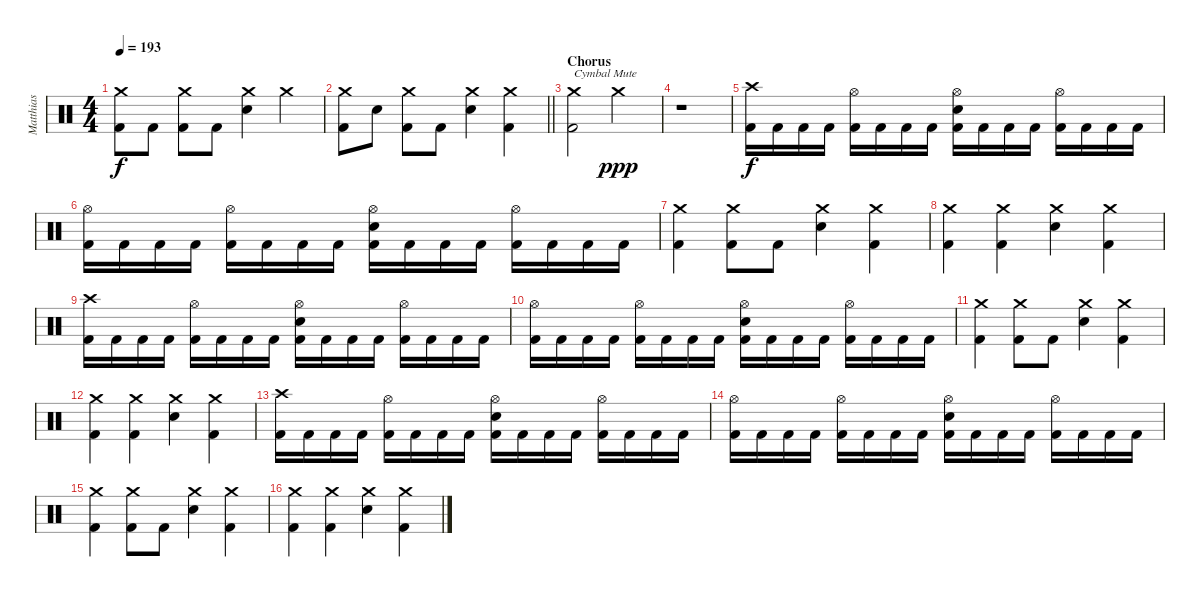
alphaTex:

\track ("Matthias" "Matthias") {instrument percussion}
\staff {score}
\articulation defaults
\ts (4 4)
\tempo 193
\clef neutral
\ks c
("Crash medium (hit)" "Kick (hit) 2").8{dy f} "Kick (hit) 2".8 ("Crash medium (hit)" "Kick (hit) 2").8 "Kick (hit) 2".8 ("Crash medium (hit)" "Electric Snare (hit)").4 "Crash medium (hit)".4 |
\barLineRight lightlight
("Crash medium (hit)" "Kick (hit) 2").8 "Electric Snare (hit)".8 ("Crash medium (hit)" "Kick (hit) 2").8 "Kick (hit) 2".8 ("Crash medium (hit)" "Electric Snare (hit)").4 ("Crash medium (hit)" "Kick (hit) 2").4 |
\section ("" "Chorus")
("Crash medium (hit)" "Kick (hit) 2").2{txt "Cymbal Mute"} "Crash medium (hit)".2{dy ppp} |
r.1 |
("Crash high (hit)" "Kick (hit) 2").16{dy f} "Kick (hit) 2".16 "Kick (hit) 2".16 "Kick (hit) 2".16 ("Hi-Hat (open)" "Kick (hit) 2").16 "Kick (hit) 2".16 "Kick (hit) 2".16 "Kick (hit) 2".16 ("Hi-Hat (open)" "Electric Snare (hit)" "Kick (hit) 2").16 "Kick (hit) 2".16 "Kick (hit) 2".16 "Kick (hit) 2".16 ("Hi-Hat (open)" "Kick (hit) 2").16 "Kick (hit) 2".16 "Kick (hit) 2".16 "Kick (hit) 2".16 |
("Hi-Hat (open)" "Kick (hit) 2").16 "Kick (hit) 2".16 "Kick (hit) 2".16 "Kick (hit) 2".16 ("Hi-Hat (open)" "Kick (hit) 2").16 "Kick (hit) 2".16 "Kick (hit) 2".16 "Kick (hit) 2".16 ("Hi-Hat (open)" "Electric Snare (hit)" "Kick (hit) 2").16 "Kick (hit) 2".16 "Kick (hit) 2".16 "Kick (hit) 2".16 ("Hi-Hat (open)" "Kick (hit) 2").16 "Kick (hit) 2".16 "Kick (hit) 2".16 "Kick (hit) 2".16 |
("Crash medium (hit)" "Kick (hit) 2").4 ("Crash medium (hit)" "Kick (hit) 2").8 "Kick (hit) 2".8 ("Crash medium (hit)" "Electric Snare (hit)").4 ("Crash medium (hit)" "Kick (hit) 2").4 |
("Crash medium (hit)" "Kick (hit) 2").4 ("Crash medium (hit)" "Kick (hit) 2").4 ("Crash medium (hit)" "Electric Snare (hit)").4 ("Crash medium (hit)" "Kick (hit) 2").4 |
("Crash high (hit)" "Kick (hit) 2").16 "Kick (hit) 2".16 "Kick (hit) 2".16 "Kick (hit) 2".16 ("Hi-Hat (open)" "Kick (hit) 2").16 "Kick (hit) 2".16 "Kick (hit) 2".16 "Kick (hit) 2".16 ("Hi-Hat (open)" "Electric Snare (hit)" "Kick (hit) 2").16 "Kick (hit) 2".16 "Kick (hit) 2".16 "Kick (hit) 2".16 ("Hi-Hat (open)" "Kick (hit) 2").16 "Kick (hit) 2".16 "Kick (hit) 2".16 "Kick (hit) 2".16 |
("Hi-Hat (open)" "Kick (hit) 2").16 "Kick (hit) 2".16 "Kick (hit) 2".16 "Kick (hit) 2".16 ("Hi-Hat (open)" "Kick (hit) 2").16 "Kick (hit) 2".16 "Kick (hit) 2".16 "Kick (hit) 2".16 ("Hi-Hat (open)" "Electric Snare (hit)" "Kick (hit) 2").16 "Kick (hit) 2".16 "Kick (hit) 2".16 "Kick (hit) 2".16 ("Hi-Hat (open)" "Kick (hit) 2").16 "Kick (hit) 2".16 "Kick (hit) 2".16 "Kick (hit) 2".16 |
("Crash medium (hit)" "Kick (hit) 2").4 ("Crash medium (hit)" "Kick (hit) 2").8 "Kick (hit) 2".8 ("Crash medium (hit)" "Electric Snare (hit)").4 ("Crash medium (hit)" "Kick (hit) 2").4 |
("Crash medium (hit)" "Kick (hit) 2").4 ("Crash medium (hit)" "Kick (hit) 2").4 ("Crash medium (hit)" "Electric Snare (hit)").4 ("Crash medium (hit)" "Kick (hit) 2").4 |
("Crash high (hit)" "Kick (hit) 2").16 "Kick (hit) 2".16 "Kick (hit) 2".16 "Kick (hit) 2".16 ("Hi-Hat (open)" "Kick (hit) 2").16 "Kick (hit) 2".16 "Kick (hit) 2".16 "Kick (hit) 2".16 ("Hi-Hat (open)" "Electric Snare (hit)" "Kick (hit) 2").16 "Kick (hit) 2".16 "Kick (hit) 2".16 "Kick (hit) 2".16 ("Hi-Hat (open)" "Kick (hit) 2").16 "Kick (hit) 2".16 "Kick (hit) 2".16 "Kick (hit) 2".16 |
("Hi-Hat (open)" "Kick (hit) 2").16 "Kick (hit) 2".16 "Kick (hit) 2".16 "Kick (hit) 2".16 ("Hi-Hat (open)" "Kick (hit) 2").16 "Kick (hit) 2".16 "Kick (hit) 2".16 "Kick (hit) 2".16 ("Hi-Hat (open)" "Electric Snare (hit)" "Kick (hit) 2").16 "Kick (hit) 2".16 "Kick (hit) 2".16 "Kick (hit) 2".16 ("Hi-Hat (open)" "Kick (hit) 2").16 "Kick (hit) 2".16 "Kick (hit) 2".16 "Kick (hit) 2".16 |
("Crash medium (hit)" "Kick (hit) 2").4 ("Crash medium (hit)" "Kick (hit) 2").8 "Kick (hit) 2".8 ("Crash medium (hit)" "Electric Snare (hit)").4 ("Crash medium (hit)" "Kick (hit) 2").4 |
("Crash medium (hit)" "Kick (hit) 2").4 ("Crash medium (hit)" "Kick (hit) 2").4 ("Crash medium (hit)" "Electric Snare (hit)").4 ("Crash medium (hit)" "Kick (hit) 2").4
